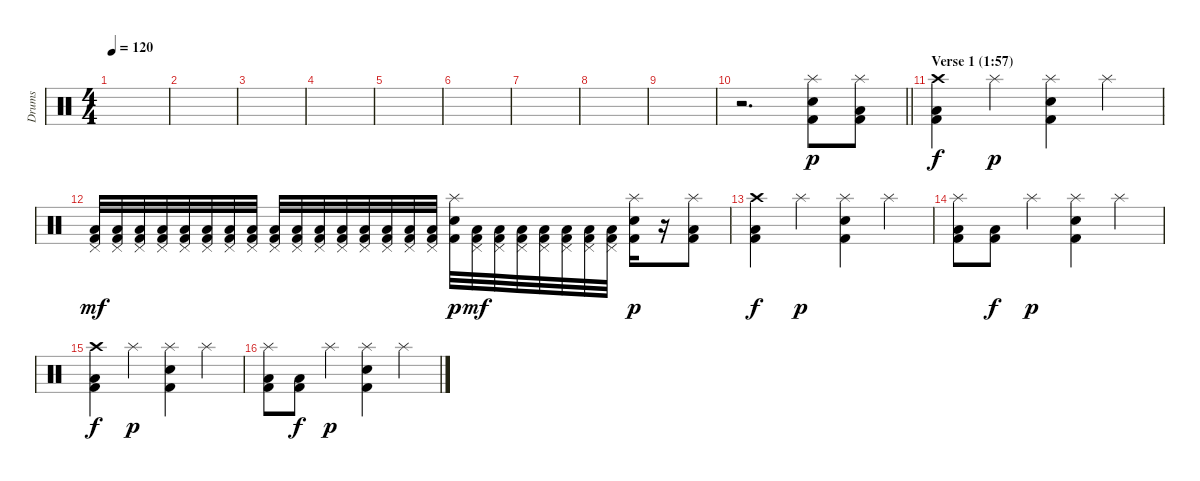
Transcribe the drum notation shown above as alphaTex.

\track ("Drums" "Drums") {instrument percussion}
\staff {score}
\articulation defaults
\ts (4 4)
\tempo 120
\clef neutral
\ks c
|
|
|
|
|
|
|
|
|
\barLineRight lightlight
r.2{d} ("Splash (hit)" "Snare (hit) 2" "Kick (hit) 2").8{dy p} ("Splash (hit)" "Low Floor Tom (hit)" "Kick (hit) 2").8 |
\section ("" "Verse 1 (1:57)")
("Crash high (hit)" "Low Floor Tom (hit)" "Kick (hit) 2").4{dy f} "Splash (hit)".4{dy p} ("Splash (hit)" "Snare (hit) 2" "Kick (hit) 2").4 "Splash (hit)".4 |
("Pedal Hi-Hat (hit)" "Low Floor Tom (hit)" "Kick (hit) 2").32{dy mf} ("Pedal Hi-Hat (hit)" "Low Floor Tom (hit)" "Kick (hit) 2").32 ("Pedal Hi-Hat (hit)" "Low Floor Tom (hit)" "Kick (hit) 2").32 ("Pedal Hi-Hat (hit)" "Low Floor Tom (hit)" "Kick (hit) 2").32 ("Pedal Hi-Hat (hit)" "Low Floor Tom (hit)" "Kick (hit) 2").32 ("Pedal Hi-Hat (hit)" "Low Floor Tom (hit)" "Kick (hit) 2").32 ("Pedal Hi-Hat (hit)" "Low Floor Tom (hit)" "Kick (hit) 2").32 ("Pedal Hi-Hat (hit)" "Low Floor Tom (hit)" "Kick (hit) 2").32 ("Pedal Hi-Hat (hit)" "Low Floor Tom (hit)" "Kick (hit) 2").32 ("Pedal Hi-Hat (hit)" "Low Floor Tom (hit)" "Kick (hit) 2").32 ("Pedal Hi-Hat (hit)" "Low Floor Tom (hit)" "Kick (hit) 2").32 ("Pedal Hi-Hat (hit)" "Low Floor Tom (hit)" "Kick (hit) 2").32 ("Pedal Hi-Hat (hit)" "Low Floor Tom (hit)" "Kick (hit) 2").32 ("Pedal Hi-Hat (hit)" "Low Floor Tom (hit)" "Kick (hit) 2").32 ("Pedal Hi-Hat (hit)" "Low Floor Tom (hit)" "Kick (hit) 2").32 ("Pedal Hi-Hat (hit)" "Low Floor Tom (hit)" "Kick (hit) 2").32 ("Splash (hit)" "Snare (hit) 2" "Kick (hit) 2").32{dy p} ("Pedal Hi-Hat (hit)" "Low Floor Tom (hit)" "Kick (hit) 2").32{dy mf} ("Pedal Hi-Hat (hit)" "Low Floor Tom (hit)" "Kick (hit) 2").32 ("Pedal Hi-Hat (hit)" "Low Floor Tom (hit)" "Kick (hit) 2").32 ("Pedal Hi-Hat (hit)" "Low Floor Tom (hit)" "Kick (hit) 2").32 ("Pedal Hi-Hat (hit)" "Low Floor Tom (hit)" "Kick (hit) 2").32 ("Pedal Hi-Hat (hit)" "Low Floor Tom (hit)" "Kick (hit) 2").32 ("Pedal Hi-Hat (hit)" "Low Floor Tom (hit)" "Kick (hit) 2").32 ("Splash (hit)" "Snare (hit) 2" "Kick (hit) 2").16{dy p} r.16 ("Splash (hit)" "Low Floor Tom (hit)" "Kick (hit) 2").8 |
("Crash high (hit)" "Low Floor Tom (hit)" "Kick (hit) 2").4{dy f} "Splash (hit)".4{dy p} ("Splash (hit)" "Snare (hit) 2" "Kick (hit) 2").4 "Splash (hit)".4 |
("Splash (hit)" "Low Floor Tom (hit)" "Kick (hit) 2").8 ("Low Floor Tom (hit)" "Kick (hit) 2").8{dy f} "Splash (hit)".4{dy p} ("Splash (hit)" "Snare (hit) 2" "Kick (hit) 2").4 "Splash (hit)".4 |
("Crash high (hit)" "Low Floor Tom (hit)" "Kick (hit) 2").4{dy f} "Splash (hit)".4{dy p} ("Splash (hit)" "Snare (hit) 2" "Kick (hit) 2").4 "Splash (hit)".4 |
("Splash (hit)" "Low Floor Tom (hit)" "Kick (hit) 2").8 ("Low Floor Tom (hit)" "Kick (hit) 2").8{dy f} "Splash (hit)".4{dy p} ("Splash (hit)" "Snare (hit) 2" "Kick (hit) 2").4 "Splash (hit)".4
